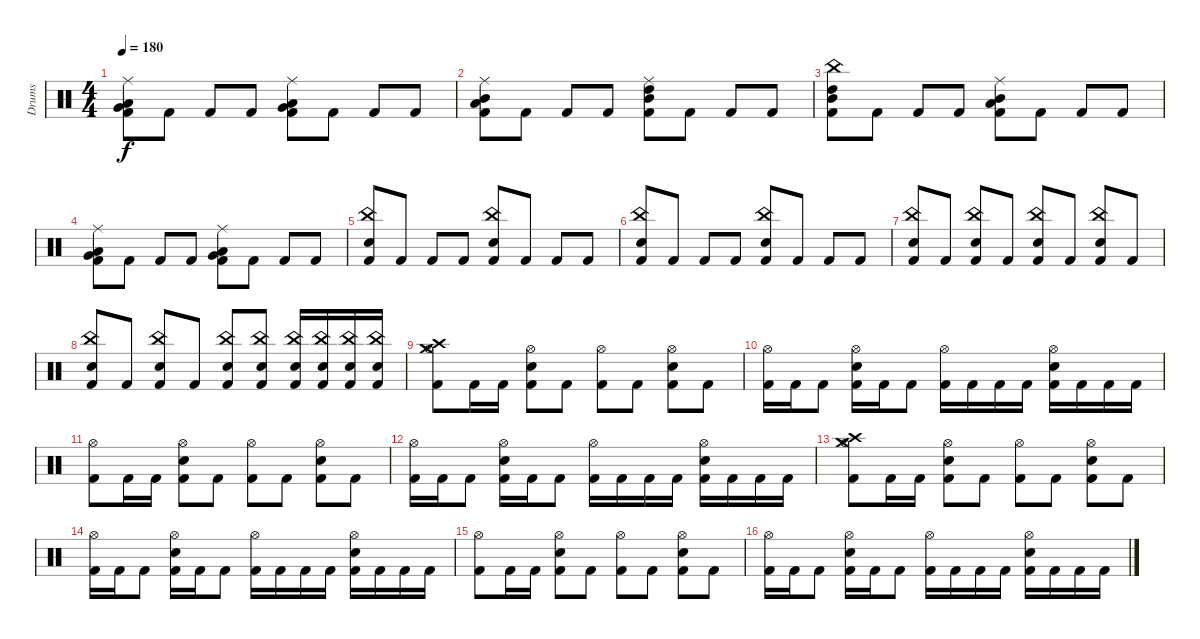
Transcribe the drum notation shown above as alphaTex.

\track ("Drums" "Drums") {instrument percussion}
\staff {score}
\articulation defaults
\ts (4 4)
\tempo 180
\clef neutral
\ks c
("Ride (middle)" "Very Low Tom (hit)" "Low Floor Tom (hit)" "Kick (hit) 2").8{dy f} "Kick (hit) 2".8 "Kick (hit) 2".8 "Kick (hit) 2".8 ("Ride (middle)" "Very Low Tom (hit)" "Low Tom (hit)" "Kick (hit) 2").8 "Kick (hit) 2".8 "Kick (hit) 2".8 "Kick (hit) 2".8 |
("Ride (middle)" "Low Tom (hit)" "Mid Tom (hit)" "Kick (hit) 2").8 "Kick (hit) 2".8 "Kick (hit) 2".8 "Kick (hit) 2".8 ("Ride (middle)" "Mid Tom (hit)" "High Tom (hit)" "Kick (hit) 2").8 "Kick (hit) 2".8 "Kick (hit) 2".8 "Kick (hit) 2".8 |
("China (hit)" "High Tom (hit)" "Mid Tom (hit)" "Kick (hit) 2").8 "Kick (hit) 2".8 "Kick (hit) 2".8 "Kick (hit) 2".8 ("Ride (middle)" "Low Tom (hit)" "Mid Tom (hit)" "Kick (hit) 2").8 "Kick (hit) 2".8 "Kick (hit) 2".8 "Kick (hit) 2".8 |
("Ride (middle)" "Low Tom (hit)" "Very Low Tom (hit)" "Kick (hit) 2").8 "Kick (hit) 2".8 "Kick (hit) 2".8 "Kick (hit) 2".8 ("Ride (middle)" "Very Low Tom (hit)" "Low Floor Tom (hit)" "Kick (hit) 2").8 "Kick (hit) 2".8 "Kick (hit) 2".8 "Kick (hit) 2".8 |
("China (hit)" "Snare (hit) 2" "Kick (hit) 2").8 "Kick (hit) 2".8 "Kick (hit) 2".8 "Kick (hit) 2".8 ("China (hit)" "Snare (hit) 2" "Kick (hit) 2").8 "Kick (hit) 2".8 "Kick (hit) 2".8 "Kick (hit) 2".8 |
("China (hit)" "Snare (hit) 2" "Kick (hit) 2").8 "Kick (hit) 2".8 "Kick (hit) 2".8 "Kick (hit) 2".8 ("China (hit)" "Snare (hit) 2" "Kick (hit) 2").8 "Kick (hit) 2".8 "Kick (hit) 2".8 "Kick (hit) 2".8 |
("China (hit)" "Snare (hit) 2" "Kick (hit) 2").8 "Kick (hit) 2".8 ("China (hit)" "Snare (hit) 2" "Kick (hit) 2").8 "Kick (hit) 2".8 ("China (hit)" "Snare (hit) 2" "Kick (hit) 2").8 "Kick (hit) 2".8 ("China (hit)" "Snare (hit) 2" "Kick (hit) 2").8 "Kick (hit) 2".8 |
("China (hit)" "Snare (hit) 2" "Kick (hit) 2").8 "Kick (hit) 2".8 ("China (hit)" "Snare (hit) 2" "Kick (hit) 2").8 "Kick (hit) 2".8 ("China (hit)" "Snare (hit) 2" "Kick (hit) 2").8 ("China (hit)" "Snare (hit) 2" "Kick (hit) 2").8 ("China (hit)" "Snare (hit) 2" "Kick (hit) 2").16 ("China (hit)" "Snare (hit) 2" "Kick (hit) 2").16 ("China (hit)" "Snare (hit) 2" "Kick (hit) 2").16 ("China (hit)" "Snare (hit) 2" "Kick (hit) 2").16 |
("Hi-Hat (open)" "Crash medium (hit)" "Crash high (hit)" "Kick (hit) 2").8 "Kick (hit) 2".16 "Kick (hit) 2".16 ("Hi-Hat (open)" "Snare (hit) 2" "Kick (hit) 2").8 "Kick (hit) 2".8 ("Hi-Hat (open)" "Kick (hit) 2").8 "Kick (hit) 2".8 ("Hi-Hat (open)" "Snare (hit) 2" "Kick (hit) 2").8 "Kick (hit) 2".8 |
("Hi-Hat (open)" "Kick (hit) 2").16 "Kick (hit) 2".16 "Kick (hit) 2".8 ("Hi-Hat (open)" "Snare (hit) 2" "Kick (hit) 2").16 "Kick (hit) 2".16 "Kick (hit) 2".8 ("Hi-Hat (open)" "Kick (hit) 2").16 "Kick (hit) 2".16 "Kick (hit) 2".16 "Kick (hit) 2".16 ("Hi-Hat (open)" "Snare (hit) 2" "Kick (hit) 2").16 "Kick (hit) 2".16 "Kick (hit) 2".16 "Kick (hit) 2".16 |
("Hi-Hat (open)" "Kick (hit) 2").8 "Kick (hit) 2".16 "Kick (hit) 2".16 ("Hi-Hat (open)" "Snare (hit) 2" "Kick (hit) 2").8 "Kick (hit) 2".8 ("Hi-Hat (open)" "Kick (hit) 2").8 "Kick (hit) 2".8 ("Hi-Hat (open)" "Snare (hit) 2" "Kick (hit) 2").8 "Kick (hit) 2".8 |
("Hi-Hat (open)" "Kick (hit) 2").16 "Kick (hit) 2".16 "Kick (hit) 2".8 ("Hi-Hat (open)" "Snare (hit) 2" "Kick (hit) 2").16 "Kick (hit) 2".16 "Kick (hit) 2".8 ("Hi-Hat (open)" "Kick (hit) 2").16 "Kick (hit) 2".16 "Kick (hit) 2".16 "Kick (hit) 2".16 ("Hi-Hat (open)" "Snare (hit) 2" "Kick (hit) 2").16 "Kick (hit) 2".16 "Kick (hit) 2".16 "Kick (hit) 2".16 |
("Hi-Hat (open)" "Crash medium (hit)" "Crash high (hit)" "Kick (hit) 2").8 "Kick (hit) 2".16 "Kick (hit) 2".16 ("Hi-Hat (open)" "Snare (hit) 2" "Kick (hit) 2").8 "Kick (hit) 2".8 ("Hi-Hat (open)" "Kick (hit) 2").8 "Kick (hit) 2".8 ("Hi-Hat (open)" "Snare (hit) 2" "Kick (hit) 2").8 "Kick (hit) 2".8 |
("Hi-Hat (open)" "Kick (hit) 2").16 "Kick (hit) 2".16 "Kick (hit) 2".8 ("Hi-Hat (open)" "Snare (hit) 2" "Kick (hit) 2").16 "Kick (hit) 2".16 "Kick (hit) 2".8 ("Hi-Hat (open)" "Kick (hit) 2").16 "Kick (hit) 2".16 "Kick (hit) 2".16 "Kick (hit) 2".16 ("Hi-Hat (open)" "Snare (hit) 2" "Kick (hit) 2").16 "Kick (hit) 2".16 "Kick (hit) 2".16 "Kick (hit) 2".16 |
("Hi-Hat (open)" "Kick (hit) 2").8 "Kick (hit) 2".16 "Kick (hit) 2".16 ("Hi-Hat (open)" "Snare (hit) 2" "Kick (hit) 2").8 "Kick (hit) 2".8 ("Hi-Hat (open)" "Kick (hit) 2").8 "Kick (hit) 2".8 ("Hi-Hat (open)" "Snare (hit) 2" "Kick (hit) 2").8 "Kick (hit) 2".8 |
("Hi-Hat (open)" "Kick (hit) 2").16 "Kick (hit) 2".16 "Kick (hit) 2".8 ("Hi-Hat (open)" "Snare (hit) 2" "Kick (hit) 2").16 "Kick (hit) 2".16 "Kick (hit) 2".8 ("Hi-Hat (open)" "Kick (hit) 2").16 "Kick (hit) 2".16 "Kick (hit) 2".16 "Kick (hit) 2".16 ("Hi-Hat (open)" "Snare (hit) 2" "Kick (hit) 2").16 "Kick (hit) 2".16 "Kick (hit) 2".16 "Kick (hit) 2".16
